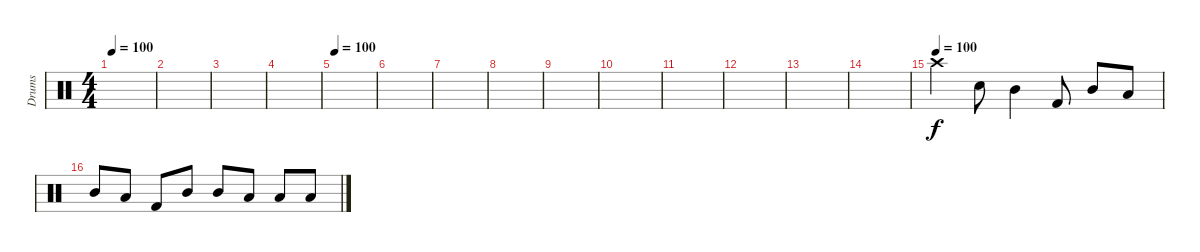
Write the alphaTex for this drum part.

\track ("Drums" "Drums") {instrument percussion}
\staff {score}
\articulation defaults
\ts (4 4)
\tempo 100
\clef neutral
\ks c
|
|
|
|
\tempo 100
|
|
|
|
|
|
|
|
|
|
\tempo (100)
"Crash high (hit)".4 "Electric Snare (hit)".8 "Mid Tom (hit)".4 "Kick (hit) 2".8 "Mid Tom (hit)".8 "Low Tom (hit)".8 |
"Mid Tom (hit)".8 "Low Tom (hit)".8 "Kick (hit) 2".8 "Mid Tom (hit)".8 "Mid Tom (hit)".8 "Low Tom (hit)".8 "Low Tom (hit)".8 "Low Tom (hit)".8
